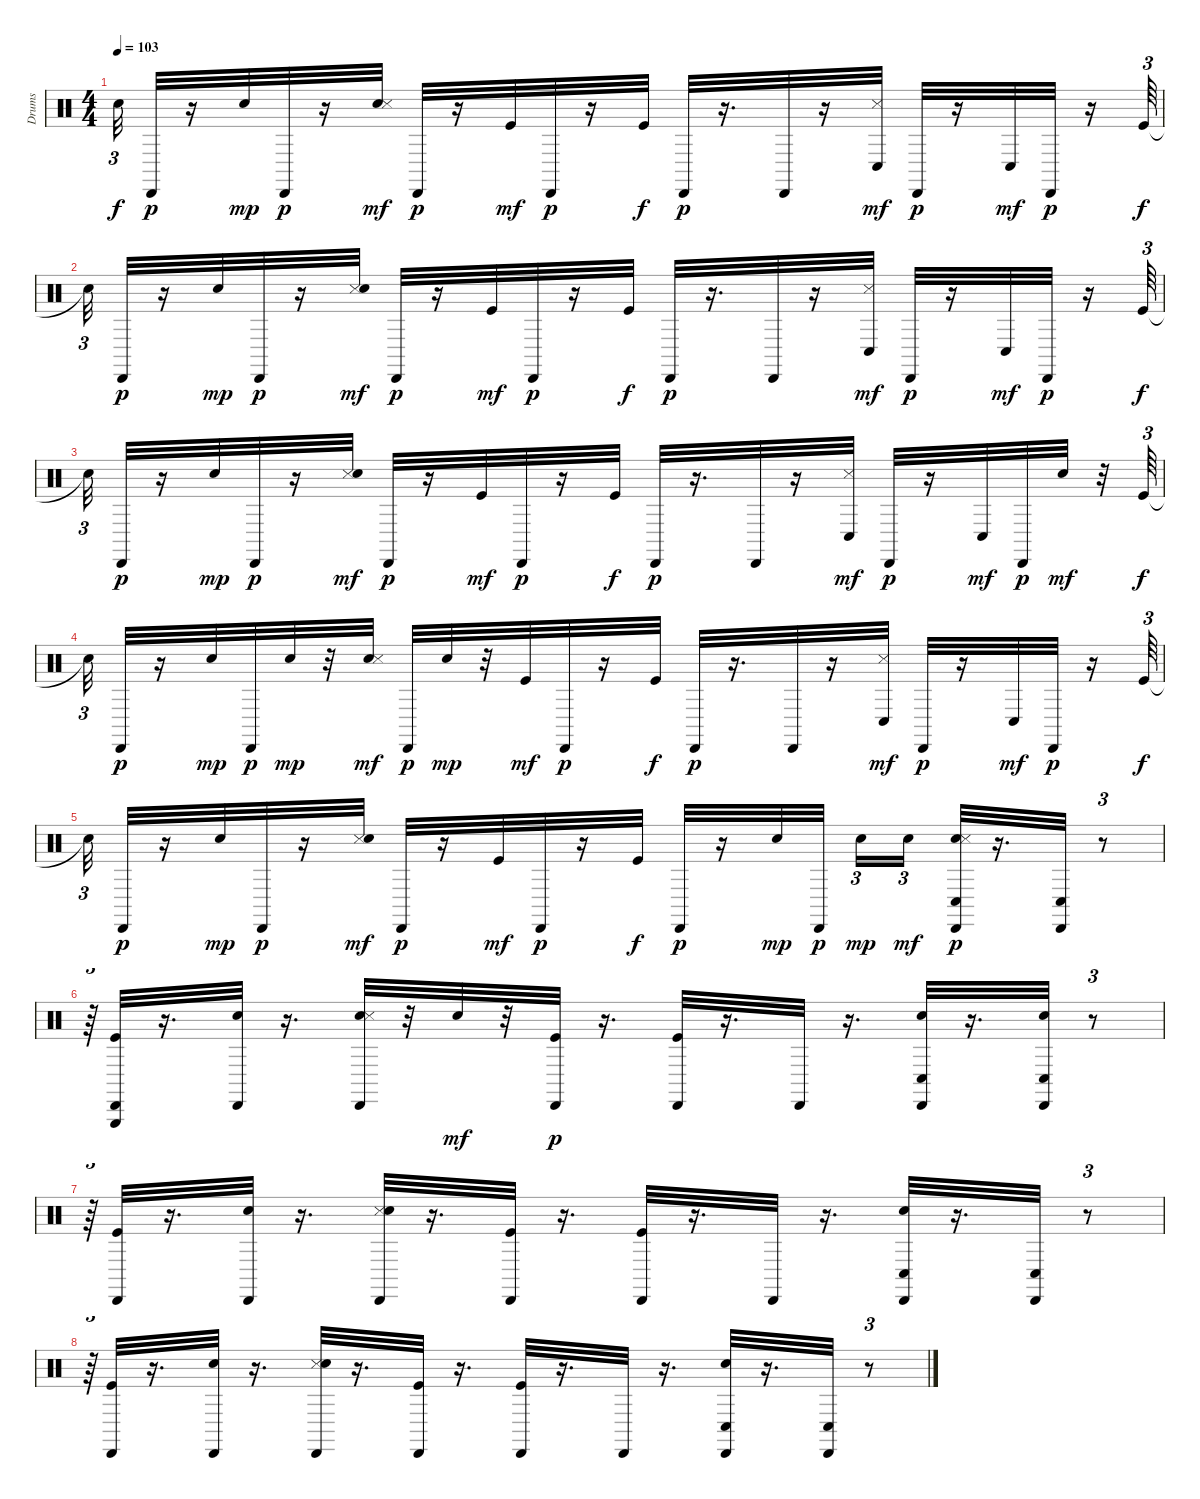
\track ("Drums" "Drums") {instrument percussion}
\staff {score}
\articulation defaults
\ts (4 4)
\tempo 103
\clef neutral
\ks c "Snare (hit)"{t}.32{tu (3 2) dy f} "Cabasa (hit)".32{dy p}
r.16 "Snare (hit) 2".32{dy mp} "Cabasa (hit)".32{dy p} r.16 ("Snare (hit) 2" "Snare (side stick) 3").32{dy mf} "Cabasa (hit)".32{dy p} r.16 "Kick (hit)".32{dy mf} "Cabasa (hit)".32{dy p} r.16 "Kick (hit)".32{dy f} "Cabasa (hit)".32{dy p} r.16{d} "Cabasa (hit)".32 r.16 ("Conga low (hit)" "Snare (side stick) 3").32{dy mf} "Cabasa (hit)".32{dy p} r.16 "Conga low (hit)".32{dy mf} "Cabasa (hit)".32{dy p} r.16 "Kick (hit)".64{tu (3 2) dy f} |
"Snare (hit)"{t}.32{tu (3 2)} "Cabasa (hit)".32{dy p} r.16 "Snare (hit) 2".32{dy mp} "Cabasa (hit)".32{dy p} r.16 ("Snare (side stick) 3" "Snare (hit) 2").32{dy mf} "Cabasa (hit)".32{dy p} r.16 "Kick (hit)".32{dy mf} "Cabasa (hit)".32{dy p} r.16 "Kick (hit)".32{dy f} "Cabasa (hit)".32{dy p} r.16{d} "Cabasa (hit)".32 r.16 ("Conga low (hit)" "Snare (side stick) 3").32{dy mf} "Cabasa (hit)".32{dy p} r.16 "Conga low (hit)".32{dy mf} "Cabasa (hit)".32{dy p} r.16 "Kick (hit)".64{tu (3 2) dy f} |
"Snare (hit)"{t}.32{tu (3 2)} "Cabasa (hit)".32{dy p} r.16 "Snare (hit) 2".32{dy mp} "Cabasa (hit)".32{dy p} r.16 ("Snare (side stick) 3" "Snare (hit) 2").32{dy mf} "Cabasa (hit)".32{dy p} r.16 "Kick (hit)".32{dy mf} "Cabasa (hit)".32{dy p} r.16 "Kick (hit)".32{dy f} "Cabasa (hit)".32{dy p} r.16{d} "Cabasa (hit)".32 r.16 ("Conga low (hit)" "Snare (side stick) 3").32{dy mf} "Cabasa (hit)".32{dy p} r.16 "Conga low (hit)".32{dy mf} "Cabasa (hit)".32{dy p} "Snare (hit) 2".32{dy mf} r.32 "Kick (hit)".64{tu (3 2) dy f} |
"Snare (hit)"{t}.32{tu (3 2)} "Cabasa (hit)".32{dy p} r.16 "Snare (hit) 2".32{dy mp} "Cabasa (hit)".32{dy p} "Snare (hit) 2".32{dy mp} r.32 ("Snare (hit) 2" "Snare (side stick) 3").32{dy mf} "Cabasa (hit)".32{dy p} "Snare (hit) 2".32{dy mp} r.32 "Kick (hit)".32{dy mf} "Cabasa (hit)".32{dy p} r.16 "Kick (hit)".32{dy f} "Cabasa (hit)".32{dy p} r.16{d} "Cabasa (hit)".32 r.16 ("Snare (side stick) 3" "Conga low (hit)").32{dy mf} "Cabasa (hit)".32{dy p} r.16 "Conga low (hit)".32{dy mf} "Cabasa (hit)".32{dy p} r.16 "Kick (hit)".64{tu (3 2) dy f} |
"Snare (hit)"{t}.32{tu (3 2)} "Cabasa (hit)".32{dy p} r.16 "Snare (hit) 2".32{dy mp} "Cabasa (hit)".32{dy p} r.16 ("Snare (side stick) 3" "Snare (hit) 2").32{dy mf} "Cabasa (hit)".32{dy p} r.16 "Kick (hit)".32{dy mf} "Cabasa (hit)".32{dy p} r.16 "Kick (hit)".32{dy f} "Cabasa (hit)".32{dy p} r.16 "Snare (hit) 2".32{dy mp} "Cabasa (hit)".32{dy p} "Snare (hit) 2".16{tu (3 2) dy mp} "Snare (hit) 2".16{tu (3 2) dy mf} ("Conga low (hit)" "Snare (hit) 2" "Snare (side stick) 3" "Cabasa (hit)").32{dy p} r.16{d} ("Conga low (hit)" "Cabasa (hit)").32 r.8{tu (3 2)} |
r.64{tu (3 2)} ("Triangle (hit)" "Kick (hit)" "Cabasa (hit)").32 r.16{d} ("Snare (hit) 2" "Cabasa (hit)").32 r.16{d} ("Snare (hit) 2" "Snare (side stick) 3" "Cabasa (hit)").32 r.32 "Snare (hit) 2".32{dy mf} r.32 ("Kick (hit)" "Cabasa (hit)").32{dy p} r.16{d} ("Kick (hit)" "Cabasa (hit)").32 r.16{d} "Cabasa (hit)".32 r.16{d} ("Conga low (hit)" "Hand Clap (hit)" "Cabasa (hit)").32 r.16{d} ("Snare (hit) 2" "Conga low (hit)" "Cabasa (hit)").32 r.8{tu (3 2)} |
r.64{tu (3 2)} ("Kick (hit)" "Cabasa (hit)").32 r.16{d} ("Snare (hit) 2" "Cabasa (hit)").32 r.16{d} ("Snare (side stick) 3" "Snare (hit) 2" "Cabasa (hit)").32 r.16{d} ("Kick (hit)" "Cabasa (hit)").32 r.16{d} ("Kick (hit)" "Cabasa (hit)").32 r.16{d} "Cabasa (hit)".32 r.16{d} ("Conga low (hit)" "Hand Clap (hit)" "Cabasa (hit)").32 r.16{d} ("Conga low (hit)" "Cabasa (hit)").32 r.8{tu (3 2)} |
r.64{tu (3 2)} ("Kick (hit)" "Cabasa (hit)").32 r.16{d} ("Snare (hit) 2" "Cabasa (hit)").32 r.16{d} ("Snare (side stick) 3" "Snare (hit) 2" "Cabasa (hit)").32 r.16{d} ("Kick (hit)" "Cabasa (hit)").32 r.16{d} ("Kick (hit)" "Cabasa (hit)").32 r.16{d} "Cabasa (hit)".32 r.16{d} ("Conga low (hit)" "Hand Clap (hit)" "Cabasa (hit)").32 r.16{d} ("Conga low (hit)" "Cabasa (hit)").32 r.8{tu (3 2)}
